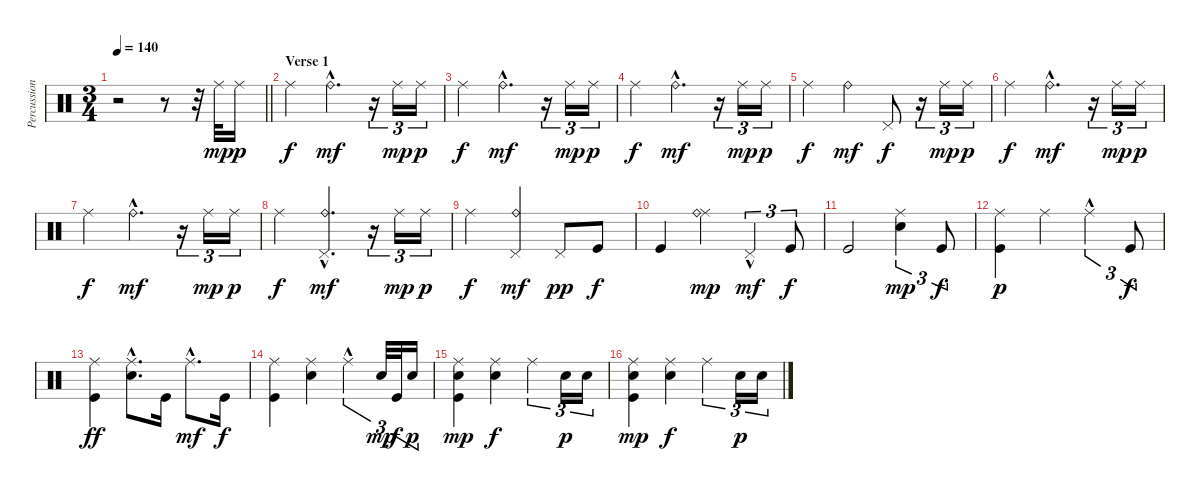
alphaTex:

\track ("Percussion" "Percussion") {instrument percussion}
\staff {score}
\articulation defaults
\ts (3 4)
\tempo 140
\clef neutral
\barLineRight lightlight
\ks c
r.2{dy ff} r.8 r.32 "Ride (middle)".32{dy mp} "Ride (middle)".16{dy p} |
\section ("" "Verse 1")
"Ride (middle)".4{dy f} "Ride (bell)"{hac}.4{d dy mf} r.16{tu (3 2)} "Ride (middle)".16{tu (3 2) dy mp} "Ride (middle)".16{tu (3 2) dy p} |
"Ride (middle)".4{dy f} "Ride (bell)"{hac}.4{d dy mf} r.16{tu (3 2)} "Ride (middle)".16{tu (3 2) dy mp} "Ride (middle)".16{tu (3 2) dy p} |
"Ride (middle)".4{dy f} "Ride (bell)"{hac}.4{d dy mf} r.16{tu (3 2)} "Ride (middle)".16{tu (3 2) dy mp} "Ride (middle)".16{tu (3 2) dy p} |
"Ride (middle)".4{dy f} "Ride (bell)".4{dy mf} "Pedal Hi-Hat (hit)".8{dy f} r.16{tu (3 2)} "Ride (middle)".16{tu (3 2) dy mp} "Ride (middle)".16{tu (3 2) dy p} |
"Ride (middle)".4{dy f} "Ride (bell)"{hac}.4{d dy mf} r.16{tu (3 2)} "Ride (middle)".16{tu (3 2) dy mp} "Ride (middle)".16{tu (3 2) dy p} |
"Ride (middle)".4{dy f} "Ride (bell)"{hac}.4{d dy mf} r.16{tu (3 2)} "Ride (middle)".16{tu (3 2) dy mp} "Ride (middle)".16{tu (3 2) dy p} |
"Ride (middle)".4{dy f} ("Ride (bell)"{hac} "Pedal Hi-Hat (hit)"{hac}).4{d dy mf} r.16{tu (3 2)} "Ride (middle)".16{tu (3 2) dy mp} "Ride (middle)".16{tu (3 2) dy p} |
"Ride (middle)".4{dy f} ("Ride (bell)" "Pedal Hi-Hat (hit)").4{dy mf} "Pedal Hi-Hat (hit)".8{dy pp} "Kick (hit)".8{dy f} |
"Kick (hit)".4 ("Ride (middle)" "Ride (bell)").4{dy mp} "Pedal Hi-Hat (hit)"{hac}.4{tu (3 2) dy mf} "Kick (hit)".8{tu (3 2) dy f} |
"Kick (hit)".2 ("Ride (middle)" "Electric Snare (hit)").4{tu (3 2) dy mp} "Kick (hit)".8{tu (3 2) dy f} |
("Ride (middle)" "Kick (hit)").4{dy p} "Ride (middle)".4 "Ride (middle)"{hac}.4{tu (3 2)} "Kick (hit)".8{tu (3 2) dy f} |
("Ride (middle)" "Kick (hit)").4{dy ff} ("Ride (middle)"{hac} "Electric Snare (hit)"{hac}).8{d} "Kick (hit)".16 "Ride (middle)"{hac}.8{d dy mf} "Kick (hit)".16{dy f} |
("Ride (middle)" "Kick (hit)").4 ("Ride (middle)" "Electric Snare (hit)").4 "Ride (middle)"{hac}.4{tu (3 2)} "Electric Snare (hit)".32{tu (3 2) dy mp} "Kick (hit)".32{tu (3 2) dy f} "Electric Snare (hit)".16{tu (3 2) dy p} |
("Ride (middle)" "Electric Snare (hit)" "Kick (hit)").4{dy mp} ("Ride (middle)" "Electric Snare (hit)").4{dy f} "Ride (middle)".4{tu (3 2)} "Electric Snare (hit)".16{tu (3 2) dy p} "Electric Snare (hit)".16{tu (3 2)} |
("Ride (middle)" "Electric Snare (hit)" "Kick (hit)").4{dy mp} ("Ride (middle)" "Electric Snare (hit)").4{dy f} "Ride (middle)".4{tu (3 2)} "Electric Snare (hit)".16{tu (3 2) dy p} "Electric Snare (hit)".16{tu (3 2)}
